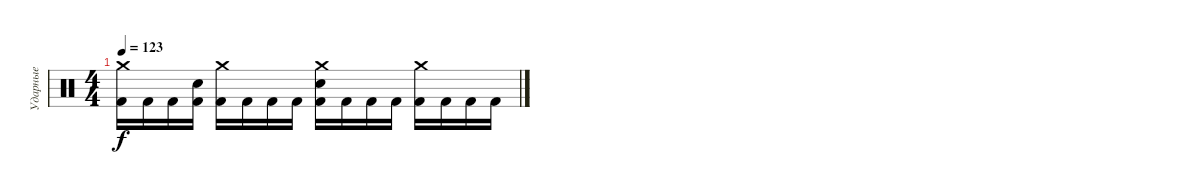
\track ("Ударные" "Ударные") {instrument percussion}
\staff {score}
\articulation defaults
\ts (4 4)
\tempo 123
\clef neutral
\ks c
("Crash medium (hit)" "Kick (hit) 2").16{dy f} "Kick (hit) 2".16 "Kick (hit) 2".16 ("Electric Snare (hit)" "Kick (hit) 2").16 ("Crash medium (hit)" "Kick (hit) 2").16 "Kick (hit) 2".16 "Kick (hit) 2".16 "Kick (hit) 2".16 ("Electric Snare (hit)" "Crash medium (hit)" "Kick (hit) 2").16 "Kick (hit) 2".16 "Kick (hit) 2".16 "Kick (hit) 2".16 ("Crash medium (hit)" "Kick (hit) 2").16 "Kick (hit) 2".16 "Kick (hit) 2".16 "Kick (hit) 2".16
